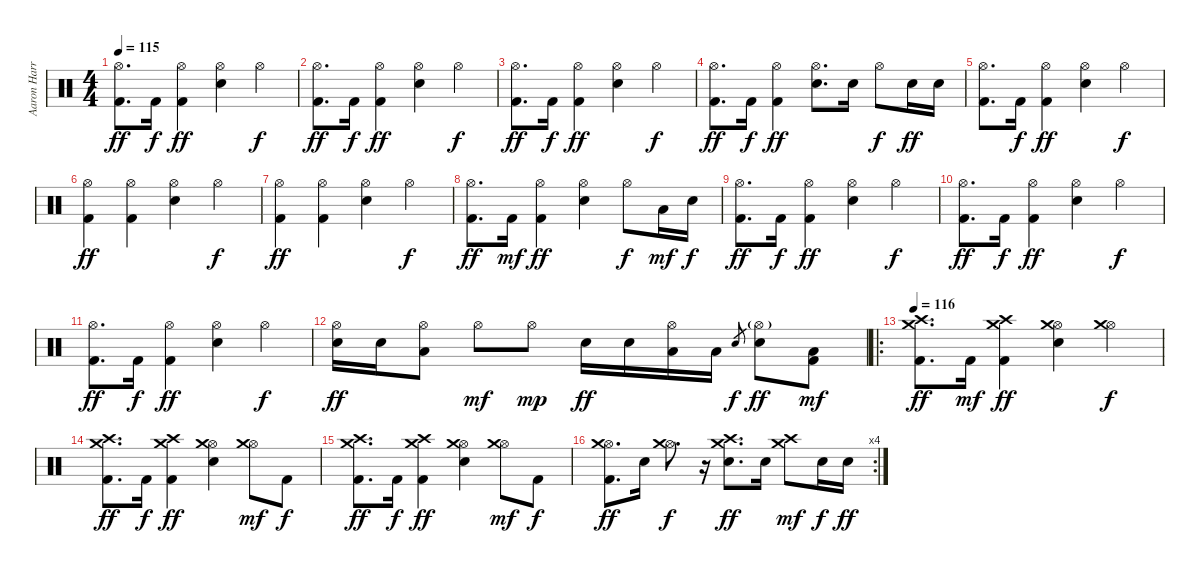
\track ("Aaron Harris" "Aaron Harr") {instrument percussion}
\staff {score}
\articulation defaults
\ts (4 4)
\tempo 115
\clef neutral
\ks c
("Hi-Hat (open)" "Kick (hit) 2").8{d dy ff} "Kick (hit) 2".16{dy f} ("Hi-Hat (open)" "Kick (hit) 2").4{dy ff} ("Hi-Hat (open)" "Electric Snare (hit)").4 "Hi-Hat (open)".4{dy f} |
("Hi-Hat (open)" "Kick (hit) 2").8{d dy ff} "Kick (hit) 2".16{dy f} ("Hi-Hat (open)" "Kick (hit) 2").4{dy ff} ("Hi-Hat (open)" "Electric Snare (hit)").4 "Hi-Hat (open)".4{dy f} |
("Hi-Hat (open)" "Kick (hit) 2").8{d dy ff} "Kick (hit) 2".16{dy f} ("Hi-Hat (open)" "Kick (hit) 2").4{dy ff} ("Hi-Hat (open)" "Electric Snare (hit)").4 "Hi-Hat (open)".4{dy f} |
("Hi-Hat (open)" "Kick (hit) 2").8{d dy ff} "Kick (hit) 2".16{dy f} ("Hi-Hat (open)" "Kick (hit) 2").4{dy ff} ("Hi-Hat (open)" "Electric Snare (hit)").8{d} "Electric Snare (hit)".16 "Hi-Hat (open)".8{dy f} "Electric Snare (hit)".16{dy ff} "Electric Snare (hit)".16 |
("Hi-Hat (open)" "Kick (hit) 2").8{d} "Kick (hit) 2".16{dy f} ("Hi-Hat (open)" "Kick (hit) 2").4{dy ff} ("Hi-Hat (open)" "Electric Snare (hit)").4 "Hi-Hat (open)".4{dy f} |
("Hi-Hat (open)" "Kick (hit) 2").4{dy ff} ("Hi-Hat (open)" "Kick (hit) 2").4 ("Hi-Hat (open)" "Electric Snare (hit)").4 "Hi-Hat (open)".4{dy f} |
("Hi-Hat (open)" "Kick (hit) 2").4{dy ff} ("Hi-Hat (open)" "Kick (hit) 2").4 ("Hi-Hat (open)" "Electric Snare (hit)").4 "Hi-Hat (open)".4{dy f} |
("Hi-Hat (open)" "Kick (hit) 2").8{d dy ff} "Kick (hit) 2".16{dy mf} ("Hi-Hat (open)" "Kick (hit) 2").4{dy ff} ("Hi-Hat (open)" "Electric Snare (hit)").4 "Hi-Hat (open)".8{dy f} "Low Tom (hit)".16{dy mf} "Electric Snare (hit)".16{dy f} |
("Hi-Hat (open)" "Kick (hit) 2").8{d dy ff} "Kick (hit) 2".16{dy f} ("Hi-Hat (open)" "Kick (hit) 2").4{dy ff} ("Hi-Hat (open)" "Electric Snare (hit)").4 "Hi-Hat (open)".4{dy f} |
("Hi-Hat (open)" "Kick (hit) 2").8{d dy ff} "Kick (hit) 2".16{dy f} ("Hi-Hat (open)" "Kick (hit) 2").4{dy ff} ("Hi-Hat (open)" "Electric Snare (hit)").4 "Hi-Hat (open)".4{dy f} |
("Hi-Hat (open)" "Kick (hit) 2").8{d dy ff} "Kick (hit) 2".16{dy f} ("Hi-Hat (open)" "Kick (hit) 2").4{dy ff} ("Hi-Hat (open)" "Electric Snare (hit)").4 "Hi-Hat (open)".4{dy f} |
("Hi-Hat (open)" "Electric Snare (hit)").16{dy ff} "Electric Snare (hit)".16 ("Hi-Hat (open)" "Low Tom (hit)").8 "Hi-Hat (open)".8{dy mf} "Hi-Hat (open)".8{dy mp} "Electric Snare (hit)".16{dy ff} "Electric Snare (hit)".16 ("Hi-Hat (open)" "Low Tom (hit)").16 "Low Tom (hit)".16 "Electric Snare (hit)".8{gr dy f} ("Hi-Hat (open)"{g} "Electric Snare (hit)").8{dy ff} ("Low Floor Tom (hit)" "Kick (hit) 2").8{dy mf} |
\ro
\tempo 116
("Crash medium (hit)" "Crash high (hit)" "Kick (hit) 2").8{d dy ff} "Kick (hit) 2".16{dy mf} ("Crash medium (hit)" "Crash high (hit)" "Kick (hit) 2").4{dy ff} ("Hi-Hat (open)" "Crash medium (hit)" "Electric Snare (hit)").4 ("Hi-Hat (open)" "Crash medium (hit)").4{dy f} |
("Crash medium (hit)" "Crash high (hit)" "Kick (hit) 2").8{d dy ff} "Kick (hit) 2".16{dy f} ("Crash medium (hit)" "Crash high (hit)" "Kick (hit) 2").4{dy ff} ("Hi-Hat (open)" "Crash medium (hit)" "Electric Snare (hit)").4 ("Hi-Hat (open)" "Crash medium (hit)").8{dy mf} "Kick (hit) 2".8{dy f} |
("Crash medium (hit)" "Crash high (hit)" "Kick (hit) 2").8{d dy ff} "Kick (hit) 2".16{dy f} ("Crash medium (hit)" "Crash high (hit)" "Kick (hit) 2").4{dy ff} ("Hi-Hat (open)" "Crash medium (hit)" "Electric Snare (hit)").4 ("Hi-Hat (open)" "Crash medium (hit)").8{dy mf} "Kick (hit) 2".8{dy f} |
\rc 4
("Hi-Hat (open)" "Crash medium (hit)" "Kick (hit) 2").8{d dy ff} "Electric Snare (hit)".16 ("Hi-Hat (open)" "Crash medium (hit)").8{d dy f} r.16 ("Crash high (hit)" "Crash medium (hit)" "Electric Snare (hit)").8{d dy ff} "Electric Snare (hit)".16 ("Crash high (hit)" "Crash medium (hit)").8{dy mf} "Electric Snare (hit)".16{dy f} "Electric Snare (hit)".16{dy ff}
